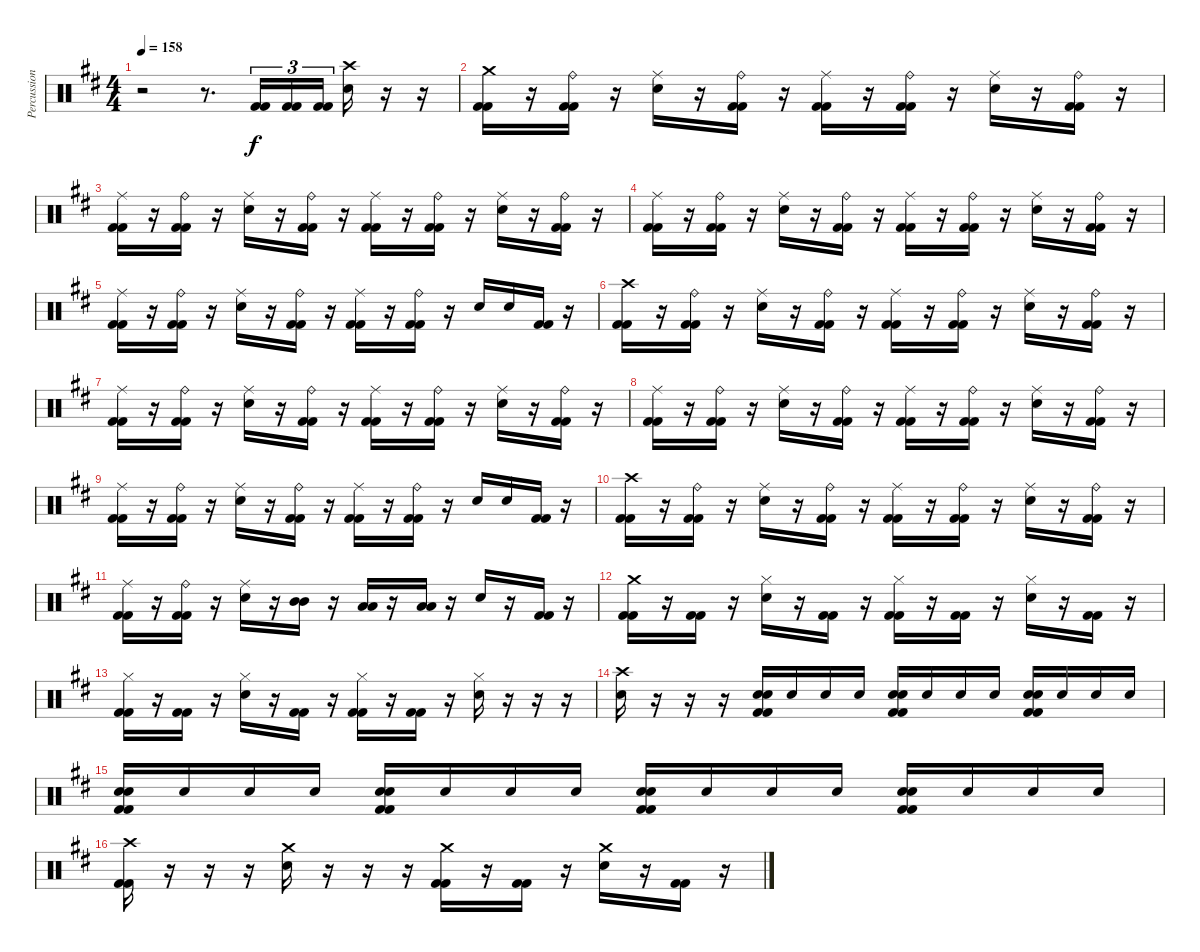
\track ("Percussion" "Percussion") {instrument percussion}
\staff {score}
\articulation defaults
\ts (4 4)
\tempo 158
\clef neutral
\ks d
r.2{dy f} r.8{d} ("Kick (hit) 2" "Kick (hit) 2").16{tu (3 2)} ("Kick (hit) 2" "Kick (hit) 2").16{tu (3 2)} ("Kick (hit) 2" "Kick (hit) 2").16{tu (3 2)} ("Crash high (hit)" "Electric Snare (hit)").16 r.16 r.16 |
("Crash medium (hit)" "Kick (hit) 2" "Kick (hit) 2").16 r.16 ("Ride (bell)" "Kick (hit) 2" "Kick (hit) 2").16 r.16 ("Ride (middle)" "Electric Snare (hit)").16 r.16 ("Ride (bell)" "Kick (hit) 2" "Kick (hit) 2").16 r.16 ("Ride (middle)" "Kick (hit) 2" "Kick (hit) 2").16 r.16 ("Ride (bell)" "Kick (hit) 2" "Kick (hit) 2").16 r.16 ("Ride (middle)" "Electric Snare (hit)").16 r.16 ("Ride (bell)" "Kick (hit) 2" "Kick (hit) 2").16 r.16 |
("Ride (middle)" "Kick (hit) 2" "Kick (hit) 2").16 r.16 ("Ride (bell)" "Kick (hit) 2" "Kick (hit) 2").16 r.16 ("Ride (middle)" "Electric Snare (hit)").16 r.16 ("Ride (bell)" "Kick (hit) 2" "Kick (hit) 2").16 r.16 ("Ride (middle)" "Kick (hit) 2" "Kick (hit) 2").16 r.16 ("Ride (bell)" "Kick (hit) 2" "Kick (hit) 2").16 r.16 ("Ride (middle)" "Electric Snare (hit)").16 r.16 ("Ride (bell)" "Kick (hit) 2" "Kick (hit) 2").16 r.16 |
("Ride (middle)" "Kick (hit) 2" "Kick (hit) 2").16 r.16 ("Ride (bell)" "Kick (hit) 2" "Kick (hit) 2").16 r.16 ("Ride (middle)" "Electric Snare (hit)").16 r.16 ("Ride (bell)" "Kick (hit) 2" "Kick (hit) 2").16 r.16 ("Ride (middle)" "Kick (hit) 2" "Kick (hit) 2").16 r.16 ("Ride (bell)" "Kick (hit) 2" "Kick (hit) 2").16 r.16 ("Ride (middle)" "Electric Snare (hit)").16 r.16 ("Ride (bell)" "Kick (hit) 2" "Kick (hit) 2").16 r.16 |
("Ride (middle)" "Kick (hit) 2" "Kick (hit) 2").16 r.16 ("Ride (bell)" "Kick (hit) 2" "Kick (hit) 2").16 r.16 ("Ride (middle)" "Electric Snare (hit)").16 r.16 ("Ride (bell)" "Kick (hit) 2" "Kick (hit) 2").16 r.16 ("Ride (middle)" "Kick (hit) 2" "Kick (hit) 2").16 r.16 ("Ride (bell)" "Kick (hit) 2" "Kick (hit) 2").16 r.16 "Electric Snare (hit)".16 "Electric Snare (hit)".16 ("Kick (hit) 2" "Kick (hit) 2").16 r.16 |
("Crash high (hit)" "Kick (hit) 2" "Kick (hit) 2").16 r.16 ("Ride (bell)" "Kick (hit) 2" "Kick (hit) 2").16 r.16 ("Ride (middle)" "Electric Snare (hit)").16 r.16 ("Ride (bell)" "Kick (hit) 2" "Kick (hit) 2").16 r.16 ("Ride (middle)" "Kick (hit) 2" "Kick (hit) 2").16 r.16 ("Ride (bell)" "Kick (hit) 2" "Kick (hit) 2").16 r.16 ("Ride (middle)" "Electric Snare (hit)").16 r.16 ("Ride (bell)" "Kick (hit) 2" "Kick (hit) 2").16 r.16 |
("Ride (middle)" "Kick (hit) 2" "Kick (hit) 2").16 r.16 ("Ride (bell)" "Kick (hit) 2" "Kick (hit) 2").16 r.16 ("Ride (middle)" "Electric Snare (hit)").16 r.16 ("Ride (bell)" "Kick (hit) 2" "Kick (hit) 2").16 r.16 ("Ride (middle)" "Kick (hit) 2" "Kick (hit) 2").16 r.16 ("Ride (bell)" "Kick (hit) 2" "Kick (hit) 2").16 r.16 ("Ride (middle)" "Electric Snare (hit)").16 r.16 ("Ride (bell)" "Kick (hit) 2" "Kick (hit) 2").16 r.16 |
("Ride (middle)" "Kick (hit) 2" "Kick (hit) 2").16 r.16 ("Ride (bell)" "Kick (hit) 2" "Kick (hit) 2").16 r.16 ("Ride (middle)" "Electric Snare (hit)").16 r.16 ("Ride (bell)" "Kick (hit) 2" "Kick (hit) 2").16 r.16 ("Ride (middle)" "Kick (hit) 2" "Kick (hit) 2").16 r.16 ("Ride (bell)" "Kick (hit) 2" "Kick (hit) 2").16 r.16 ("Ride (middle)" "Electric Snare (hit)").16 r.16 ("Ride (bell)" "Kick (hit) 2" "Kick (hit) 2").16 r.16 |
("Ride (middle)" "Kick (hit) 2" "Kick (hit) 2").16 r.16 ("Ride (bell)" "Kick (hit) 2" "Kick (hit) 2").16 r.16 ("Ride (middle)" "Electric Snare (hit)").16 r.16 ("Ride (bell)" "Kick (hit) 2" "Kick (hit) 2").16 r.16 ("Ride (middle)" "Kick (hit) 2" "Kick (hit) 2").16 r.16 ("Ride (bell)" "Kick (hit) 2" "Kick (hit) 2").16 r.16 "Electric Snare (hit)".16 "Electric Snare (hit)".16 ("Kick (hit) 2" "Kick (hit) 2").16 r.16 |
("Crash high (hit)" "Kick (hit) 2" "Kick (hit) 2").16 r.16 ("Ride (bell)" "Kick (hit) 2" "Kick (hit) 2").16 r.16 ("Ride (middle)" "Electric Snare (hit)").16 r.16 ("Ride (bell)" "Kick (hit) 2" "Kick (hit) 2").16 r.16 ("Ride (middle)" "Kick (hit) 2" "Kick (hit) 2").16 r.16 ("Ride (bell)" "Kick (hit) 2" "Kick (hit) 2").16 r.16 ("Ride (middle)" "Electric Snare (hit)").16 r.16 ("Ride (bell)" "Kick (hit) 2" "Kick (hit) 2").16 r.16 |
("Ride (middle)" "Kick (hit) 2" "Kick (hit) 2").16 r.16 ("Ride (bell)" "Kick (hit) 2" "Kick (hit) 2").16 r.16 ("Ride (middle)" "Electric Snare (hit)").16 r.16 ("Mid Tom (hit)" "Mid Tom (hit)").16 r.16 ("Low Tom (hit)" "Low Tom (hit)").16 r.16 ("Low Floor Tom (hit)" "Low Floor Tom (hit)").16 r.16 "Electric Snare (hit)".16 r.16 ("Kick (hit) 2" "Kick (hit) 2").16 r.16 |
("Crash medium (hit)" "Kick (hit) 2" "Kick (hit) 2").16 r.16 ("Kick (hit) 2" "Kick (hit) 2").16 r.16 ("Hi-Hat (closed)" "Electric Snare (hit)").16 r.16 ("Kick (hit) 2" "Kick (hit) 2").16 r.16 ("Hi-Hat (closed)" "Kick (hit) 2" "Kick (hit) 2").16 r.16 ("Kick (hit) 2" "Kick (hit) 2").16 r.16 ("Hi-Hat (closed)" "Electric Snare (hit)").16 r.16 ("Kick (hit) 2" "Kick (hit) 2").16 r.16 |
("Hi-Hat (closed)" "Kick (hit) 2" "Kick (hit) 2").16 r.16 ("Kick (hit) 2" "Kick (hit) 2").16 r.16 ("Hi-Hat (closed)" "Electric Snare (hit)").16 r.16 ("Kick (hit) 2" "Kick (hit) 2").16 r.16 ("Hi-Hat (closed)" "Kick (hit) 2" "Kick (hit) 2").16 r.16 ("Kick (hit) 2" "Kick (hit) 2").16 r.16 ("Hi-Hat (closed)" "Electric Snare (hit)").16 r.16 r.16 r.16 |
("Crash high (hit)" "Electric Snare (hit)").16 r.16 r.16 r.16 ("Electric Snare (hit)" "Electric Snare (hit)" "Kick (hit) 2" "Kick (hit) 2").16 "Electric Snare (hit)".16 "Electric Snare (hit)".16 "Electric Snare (hit)".16 ("Electric Snare (hit)" "Electric Snare (hit)" "Kick (hit) 2" "Kick (hit) 2").16 "Electric Snare (hit)".16 "Electric Snare (hit)".16 "Electric Snare (hit)".16 ("Electric Snare (hit)" "Electric Snare (hit)" "Kick (hit) 2" "Kick (hit) 2").16 "Electric Snare (hit)".16 "Electric Snare (hit)".16 "Electric Snare (hit)".16 |
("Electric Snare (hit)" "Electric Snare (hit)" "Kick (hit) 2" "Kick (hit) 2").16 "Electric Snare (hit)".16 "Electric Snare (hit)".16 "Electric Snare (hit)".16 ("Electric Snare (hit)" "Electric Snare (hit)" "Kick (hit) 2" "Kick (hit) 2").16 "Electric Snare (hit)".16 "Electric Snare (hit)".16 "Electric Snare (hit)".16 ("Electric Snare (hit)" "Electric Snare (hit)" "Kick (hit) 2" "Kick (hit) 2").16 "Electric Snare (hit)".16 "Electric Snare (hit)".16 "Electric Snare (hit)".16 ("Electric Snare (hit)" "Electric Snare (hit)" "Kick (hit) 2" "Kick (hit) 2").16 "Electric Snare (hit)".16 "Electric Snare (hit)".16 "Electric Snare (hit)".16 |
("Crash high (hit)" "Kick (hit) 2" "Kick (hit) 2").16 r.16 r.16 r.16 ("Crash medium (hit)" "Electric Snare (hit)").16 r.16 r.16 r.16 ("Crash medium (hit)" "Kick (hit) 2" "Kick (hit) 2").16 r.16 ("Kick (hit) 2" "Kick (hit) 2").16 r.16 ("Crash medium (hit)" "Electric Snare (hit)").16 r.16 ("Kick (hit) 2" "Kick (hit) 2").16 r.16
